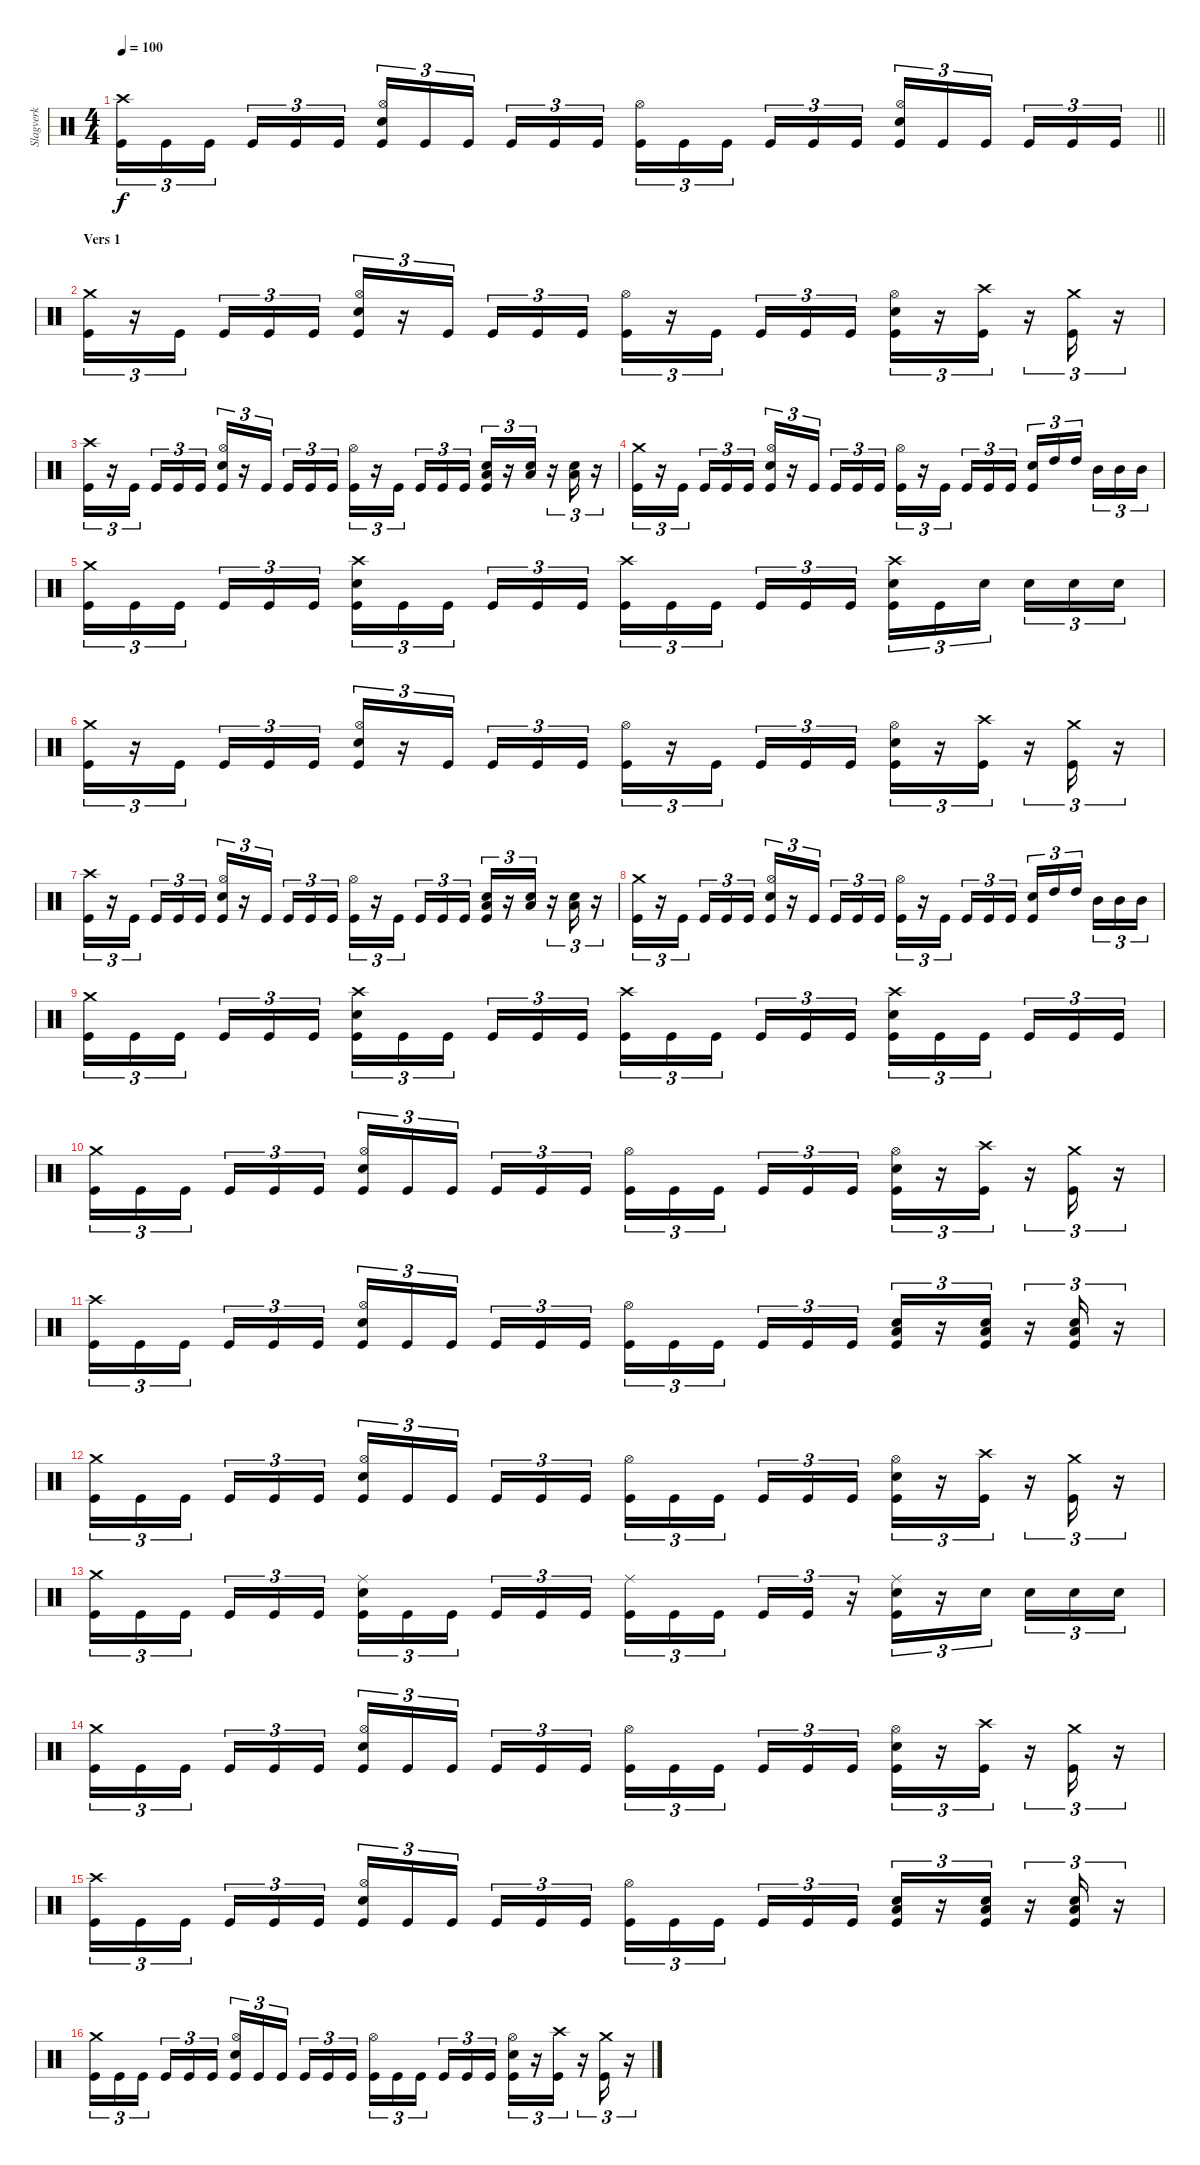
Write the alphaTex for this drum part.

\track ("Slagverk" "Slagverk") {solo instrument percussion}
\staff {score}
\articulation defaults
\ts (4 4)
\tempo 100
\clef neutral
\barLineRight lightlight
\ks c
("Crash high (hit)" "Kick (hit)").16{tu (3 2) dy f} "Kick (hit)".16{tu (3 2)} "Kick (hit)".16{tu (3 2) beam splitsecondary} "Kick (hit)".16{tu (3 2)} "Kick (hit)".16{tu (3 2)} "Kick (hit)".16{tu (3 2)} ("Hi-Hat (open)" "Electric Snare (hit)" "Kick (hit)").16{tu (3 2)} "Kick (hit)".16{tu (3 2)} "Kick (hit)".16{tu (3 2) beam splitsecondary} "Kick (hit)".16{tu (3 2)} "Kick (hit)".16{tu (3 2)} "Kick (hit)".16{tu (3 2)} ("Hi-Hat (open)" "Kick (hit)").16{tu (3 2)} "Kick (hit)".16{tu (3 2)} "Kick (hit)".16{tu (3 2) beam splitsecondary} "Kick (hit)".16{tu (3 2)} "Kick (hit)".16{tu (3 2)} "Kick (hit)".16{tu (3 2)} ("Hi-Hat (open)" "Electric Snare (hit)" "Kick (hit)").16{tu (3 2)} "Kick (hit)".16{tu (3 2)} "Kick (hit)".16{tu (3 2) beam splitsecondary} "Kick (hit)".16{tu (3 2)} "Kick (hit)".16{tu (3 2)} "Kick (hit)".16{tu (3 2)} |
\section ("" "Vers 1")
("Crash medium (hit)" "Kick (hit)").16{tu (3 2)} r.16{tu (3 2)} "Kick (hit)".16{tu (3 2) beam splitsecondary} "Kick (hit)".16{tu (3 2)} "Kick (hit)".16{tu (3 2)} "Kick (hit)".16{tu (3 2)} ("Hi-Hat (open)" "Electric Snare (hit)" "Kick (hit)").16{tu (3 2)} r.16{tu (3 2)} "Kick (hit)".16{tu (3 2) beam splitsecondary} "Kick (hit)".16{tu (3 2)} "Kick (hit)".16{tu (3 2)} "Kick (hit)".16{tu (3 2)} ("Hi-Hat (open)" "Kick (hit)").16{tu (3 2)} r.16{tu (3 2)} "Kick (hit)".16{tu (3 2) beam splitsecondary} "Kick (hit)".16{tu (3 2)} "Kick (hit)".16{tu (3 2)} "Kick (hit)".16{tu (3 2)} ("Hi-Hat (open)" "Electric Snare (hit)" "Kick (hit)").16{tu (3 2)} r.16{tu (3 2)} ("Crash high (hit)" "Kick (hit)").16{tu (3 2)} r.16{tu (3 2)} ("Crash medium (hit)" "Kick (hit)").16{tu (3 2)} r.16{tu (3 2)} |
("Crash high (hit)" "Kick (hit)").16{tu (3 2)} r.16{tu (3 2)} "Kick (hit)".16{tu (3 2) beam splitsecondary} "Kick (hit)".16{tu (3 2)} "Kick (hit)".16{tu (3 2)} "Kick (hit)".16{tu (3 2)} ("Hi-Hat (open)" "Electric Snare (hit)" "Kick (hit)").16{tu (3 2)} r.16{tu (3 2)} "Kick (hit)".16{tu (3 2) beam splitsecondary} "Kick (hit)".16{tu (3 2)} "Kick (hit)".16{tu (3 2)} "Kick (hit)".16{tu (3 2)} ("Hi-Hat (open)" "Kick (hit)").16{tu (3 2)} r.16{tu (3 2)} "Kick (hit)".16{tu (3 2) beam splitsecondary} "Kick (hit)".16{tu (3 2)} "Kick (hit)".16{tu (3 2)} "Kick (hit)".16{tu (3 2)} ("Low Floor Tom (hit)" "Electric Snare (hit)" "Kick (hit)").16{tu (3 2)} r.16{tu (3 2)} ("Low Floor Tom (hit)" "Electric Snare (hit)").16{tu (3 2)} r.16{tu (3 2)} ("Low Floor Tom (hit)" "Electric Snare (hit)").16{tu (3 2)} r.16{tu (3 2)} |
("Crash medium (hit)" "Kick (hit)").16{tu (3 2)} r.16{tu (3 2)} "Kick (hit)".16{tu (3 2) beam splitsecondary} "Kick (hit)".16{tu (3 2)} "Kick (hit)".16{tu (3 2)} "Kick (hit)".16{tu (3 2)} ("Hi-Hat (open)" "Electric Snare (hit)" "Kick (hit)").16{tu (3 2)} r.16{tu (3 2)} "Kick (hit)".16{tu (3 2) beam splitsecondary} "Kick (hit)".16{tu (3 2)} "Kick (hit)".16{tu (3 2)} "Kick (hit)".16{tu (3 2)} ("Hi-Hat (open)" "Kick (hit)").16{tu (3 2)} r.16{tu (3 2)} "Kick (hit)".16{tu (3 2) beam splitsecondary} "Kick (hit)".16{tu (3 2)} "Kick (hit)".16{tu (3 2)} "Kick (hit)".16{tu (3 2)} ("Electric Snare (hit)" "Kick (hit)").16{tu (3 2)} "High Tom (hit)".16{tu (3 2)} "High Tom (hit)".16{tu (3 2) beam splitsecondary} "Mid Tom (hit)".16{tu (3 2)} "Mid Tom (hit)".16{tu (3 2)} "Mid Tom (hit)".16{tu (3 2)} |
("Crash medium (hit)" "Kick (hit)").16{tu (3 2)} "Kick (hit)".16{tu (3 2)} "Kick (hit)".16{tu (3 2) beam splitsecondary} "Kick (hit)".16{tu (3 2)} "Kick (hit)".16{tu (3 2)} "Kick (hit)".16{tu (3 2)} ("Crash high (hit)" "Electric Snare (hit)" "Kick (hit)").16{tu (3 2)} "Kick (hit)".16{tu (3 2)} "Kick (hit)".16{tu (3 2) beam splitsecondary} "Kick (hit)".16{tu (3 2)} "Kick (hit)".16{tu (3 2)} "Kick (hit)".16{tu (3 2)} ("Crash high (hit)" "Kick (hit)").16{tu (3 2)} "Kick (hit)".16{tu (3 2)} "Kick (hit)".16{tu (3 2) beam splitsecondary} "Kick (hit)".16{tu (3 2)} "Kick (hit)".16{tu (3 2)} "Kick (hit)".16{tu (3 2)} ("Crash high (hit)" "Electric Snare (hit)" "Kick (hit)").16{tu (3 2)} "Kick (hit)".16{tu (3 2)} "Snare (hit) 2".16{tu (3 2) beam splitsecondary} "Snare (hit) 2".16{tu (3 2)} "Snare (hit) 2".16{tu (3 2)} "Snare (hit) 2".16{tu (3 2)} |
("Crash medium (hit)" "Kick (hit)").16{tu (3 2)} r.16{tu (3 2)} "Kick (hit)".16{tu (3 2) beam splitsecondary} "Kick (hit)".16{tu (3 2)} "Kick (hit)".16{tu (3 2)} "Kick (hit)".16{tu (3 2)} ("Hi-Hat (open)" "Electric Snare (hit)" "Kick (hit)").16{tu (3 2)} r.16{tu (3 2)} "Kick (hit)".16{tu (3 2) beam splitsecondary} "Kick (hit)".16{tu (3 2)} "Kick (hit)".16{tu (3 2)} "Kick (hit)".16{tu (3 2)} ("Hi-Hat (open)" "Kick (hit)").16{tu (3 2)} r.16{tu (3 2)} "Kick (hit)".16{tu (3 2) beam splitsecondary} "Kick (hit)".16{tu (3 2)} "Kick (hit)".16{tu (3 2)} "Kick (hit)".16{tu (3 2)} ("Hi-Hat (open)" "Electric Snare (hit)" "Kick (hit)").16{tu (3 2)} r.16{tu (3 2)} ("Crash high (hit)" "Kick (hit)").16{tu (3 2)} r.16{tu (3 2)} ("Crash medium (hit)" "Kick (hit)").16{tu (3 2)} r.16{tu (3 2)} |
("Crash high (hit)" "Kick (hit)").16{tu (3 2)} r.16{tu (3 2)} "Kick (hit)".16{tu (3 2) beam splitsecondary} "Kick (hit)".16{tu (3 2)} "Kick (hit)".16{tu (3 2)} "Kick (hit)".16{tu (3 2)} ("Hi-Hat (open)" "Electric Snare (hit)" "Kick (hit)").16{tu (3 2)} r.16{tu (3 2)} "Kick (hit)".16{tu (3 2) beam splitsecondary} "Kick (hit)".16{tu (3 2)} "Kick (hit)".16{tu (3 2)} "Kick (hit)".16{tu (3 2)} ("Hi-Hat (open)" "Kick (hit)").16{tu (3 2)} r.16{tu (3 2)} "Kick (hit)".16{tu (3 2) beam splitsecondary} "Kick (hit)".16{tu (3 2)} "Kick (hit)".16{tu (3 2)} "Kick (hit)".16{tu (3 2)} ("Low Floor Tom (hit)" "Electric Snare (hit)" "Kick (hit)").16{tu (3 2)} r.16{tu (3 2)} ("Low Floor Tom (hit)" "Electric Snare (hit)").16{tu (3 2)} r.16{tu (3 2)} ("Low Floor Tom (hit)" "Electric Snare (hit)").16{tu (3 2)} r.16{tu (3 2)} |
("Crash medium (hit)" "Kick (hit)").16{tu (3 2)} r.16{tu (3 2)} "Kick (hit)".16{tu (3 2) beam splitsecondary} "Kick (hit)".16{tu (3 2)} "Kick (hit)".16{tu (3 2)} "Kick (hit)".16{tu (3 2)} ("Hi-Hat (open)" "Electric Snare (hit)" "Kick (hit)").16{tu (3 2)} r.16{tu (3 2)} "Kick (hit)".16{tu (3 2) beam splitsecondary} "Kick (hit)".16{tu (3 2)} "Kick (hit)".16{tu (3 2)} "Kick (hit)".16{tu (3 2)} ("Hi-Hat (open)" "Kick (hit)").16{tu (3 2)} r.16{tu (3 2)} "Kick (hit)".16{tu (3 2) beam splitsecondary} "Kick (hit)".16{tu (3 2)} "Kick (hit)".16{tu (3 2)} "Kick (hit)".16{tu (3 2)} ("Electric Snare (hit)" "Kick (hit)").16{tu (3 2)} "High Tom (hit)".16{tu (3 2)} "High Tom (hit)".16{tu (3 2) beam splitsecondary} "Mid Tom (hit)".16{tu (3 2)} "Mid Tom (hit)".16{tu (3 2)} "Mid Tom (hit)".16{tu (3 2)} |
("Crash medium (hit)" "Kick (hit)").16{tu (3 2)} "Kick (hit)".16{tu (3 2)} "Kick (hit)".16{tu (3 2) beam splitsecondary} "Kick (hit)".16{tu (3 2)} "Kick (hit)".16{tu (3 2)} "Kick (hit)".16{tu (3 2)} ("Crash high (hit)" "Electric Snare (hit)" "Kick (hit)").16{tu (3 2)} "Kick (hit)".16{tu (3 2)} "Kick (hit)".16{tu (3 2) beam splitsecondary} "Kick (hit)".16{tu (3 2)} "Kick (hit)".16{tu (3 2)} "Kick (hit)".16{tu (3 2)} ("Crash high (hit)" "Kick (hit)").16{tu (3 2)} "Kick (hit)".16{tu (3 2)} "Kick (hit)".16{tu (3 2) beam splitsecondary} "Kick (hit)".16{tu (3 2)} "Kick (hit)".16{tu (3 2)} "Kick (hit)".16{tu (3 2)} ("Crash high (hit)" "Electric Snare (hit)" "Kick (hit)").16{tu (3 2)} "Kick (hit)".16{tu (3 2)} "Kick (hit)".16{tu (3 2) beam splitsecondary} "Kick (hit)".16{tu (3 2)} "Kick (hit)".16{tu (3 2)} "Kick (hit)".16{tu (3 2)} |
("Crash medium (hit)" "Kick (hit)").16{tu (3 2)} "Kick (hit)".16{tu (3 2)} "Kick (hit)".16{tu (3 2) beam splitsecondary} "Kick (hit)".16{tu (3 2)} "Kick (hit)".16{tu (3 2)} "Kick (hit)".16{tu (3 2)} ("Hi-Hat (open)" "Electric Snare (hit)" "Kick (hit)").16{tu (3 2)} "Kick (hit)".16{tu (3 2)} "Kick (hit)".16{tu (3 2) beam splitsecondary} "Kick (hit)".16{tu (3 2)} "Kick (hit)".16{tu (3 2)} "Kick (hit)".16{tu (3 2)} ("Hi-Hat (open)" "Kick (hit)").16{tu (3 2)} "Kick (hit)".16{tu (3 2)} "Kick (hit)".16{tu (3 2) beam splitsecondary} "Kick (hit)".16{tu (3 2)} "Kick (hit)".16{tu (3 2)} "Kick (hit)".16{tu (3 2)} ("Hi-Hat (open)" "Electric Snare (hit)" "Kick (hit)").16{tu (3 2)} r.16{tu (3 2)} ("Crash high (hit)" "Kick (hit)").16{tu (3 2)} r.16{tu (3 2)} ("Crash medium (hit)" "Kick (hit)").16{tu (3 2)} r.16{tu (3 2)} |
("Crash high (hit)" "Kick (hit)").16{tu (3 2)} "Kick (hit)".16{tu (3 2)} "Kick (hit)".16{tu (3 2) beam splitsecondary} "Kick (hit)".16{tu (3 2)} "Kick (hit)".16{tu (3 2)} "Kick (hit)".16{tu (3 2)} ("Hi-Hat (open)" "Electric Snare (hit)" "Kick (hit)").16{tu (3 2)} "Kick (hit)".16{tu (3 2)} "Kick (hit)".16{tu (3 2) beam splitsecondary} "Kick (hit)".16{tu (3 2)} "Kick (hit)".16{tu (3 2)} "Kick (hit)".16{tu (3 2)} ("Hi-Hat (open)" "Kick (hit)").16{tu (3 2)} "Kick (hit)".16{tu (3 2)} "Kick (hit)".16{tu (3 2) beam splitsecondary} "Kick (hit)".16{tu (3 2)} "Kick (hit)".16{tu (3 2)} "Kick (hit)".16{tu (3 2)} ("Low Floor Tom (hit)" "Electric Snare (hit)" "Kick (hit)").16{tu (3 2)} r.16{tu (3 2)} ("Low Floor Tom (hit)" "Electric Snare (hit)" "Kick (hit)").16{tu (3 2)} r.16{tu (3 2)} ("Low Floor Tom (hit)" "Electric Snare (hit)" "Kick (hit)").16{tu (3 2)} r.16{tu (3 2)} |
("Crash medium (hit)" "Kick (hit)").16{tu (3 2)} "Kick (hit)".16{tu (3 2)} "Kick (hit)".16{tu (3 2) beam splitsecondary} "Kick (hit)".16{tu (3 2)} "Kick (hit)".16{tu (3 2)} "Kick (hit)".16{tu (3 2)} ("Hi-Hat (open)" "Electric Snare (hit)" "Kick (hit)").16{tu (3 2)} "Kick (hit)".16{tu (3 2)} "Kick (hit)".16{tu (3 2) beam splitsecondary} "Kick (hit)".16{tu (3 2)} "Kick (hit)".16{tu (3 2)} "Kick (hit)".16{tu (3 2)} ("Hi-Hat (open)" "Kick (hit)").16{tu (3 2)} "Kick (hit)".16{tu (3 2)} "Kick (hit)".16{tu (3 2) beam splitsecondary} "Kick (hit)".16{tu (3 2)} "Kick (hit)".16{tu (3 2)} "Kick (hit)".16{tu (3 2)} ("Hi-Hat (open)" "Electric Snare (hit)" "Kick (hit)").16{tu (3 2)} r.16{tu (3 2)} ("Crash high (hit)" "Kick (hit)").16{tu (3 2)} r.16{tu (3 2)} ("Crash medium (hit)" "Kick (hit)").16{tu (3 2)} r.16{tu (3 2)} |
("Crash medium (hit)" "Kick (hit)").16{tu (3 2)} "Kick (hit)".16{tu (3 2)} "Kick (hit)".16{tu (3 2) beam splitsecondary} "Kick (hit)".16{tu (3 2)} "Kick (hit)".16{tu (3 2)} "Kick (hit)".16{tu (3 2)} ("Ride (middle)" "Electric Snare (hit)" "Kick (hit)").16{tu (3 2)} "Kick (hit)".16{tu (3 2)} "Kick (hit)".16{tu (3 2) beam splitsecondary} "Kick (hit)".16{tu (3 2)} "Kick (hit)".16{tu (3 2)} "Kick (hit)".16{tu (3 2)} ("Ride (middle)" "Kick (hit)").16{tu (3 2)} "Kick (hit)".16{tu (3 2)} "Kick (hit)".16{tu (3 2) beam splitsecondary} "Kick (hit)".16{tu (3 2)} "Kick (hit)".16{tu (3 2)} r.16{tu (3 2)} ("Ride (middle)" "Electric Snare (hit)" "Kick (hit)").16{tu (3 2)} r.16{tu (3 2)} "Electric Snare (hit)".16{tu (3 2) beam splitsecondary} "Electric Snare (hit)".16{tu (3 2)} "Electric Snare (hit)".16{tu (3 2)} "Electric Snare (hit)".16{tu (3 2)} |
("Crash medium (hit)" "Kick (hit)").16{tu (3 2)} "Kick (hit)".16{tu (3 2)} "Kick (hit)".16{tu (3 2) beam splitsecondary} "Kick (hit)".16{tu (3 2)} "Kick (hit)".16{tu (3 2)} "Kick (hit)".16{tu (3 2)} ("Hi-Hat (open)" "Electric Snare (hit)" "Kick (hit)").16{tu (3 2)} "Kick (hit)".16{tu (3 2)} "Kick (hit)".16{tu (3 2) beam splitsecondary} "Kick (hit)".16{tu (3 2)} "Kick (hit)".16{tu (3 2)} "Kick (hit)".16{tu (3 2)} ("Hi-Hat (open)" "Kick (hit)").16{tu (3 2)} "Kick (hit)".16{tu (3 2)} "Kick (hit)".16{tu (3 2) beam splitsecondary} "Kick (hit)".16{tu (3 2)} "Kick (hit)".16{tu (3 2)} "Kick (hit)".16{tu (3 2)} ("Hi-Hat (open)" "Electric Snare (hit)" "Kick (hit)").16{tu (3 2)} r.16{tu (3 2)} ("Crash high (hit)" "Kick (hit)").16{tu (3 2)} r.16{tu (3 2)} ("Crash medium (hit)" "Kick (hit)").16{tu (3 2)} r.16{tu (3 2)} |
("Crash high (hit)" "Kick (hit)").16{tu (3 2)} "Kick (hit)".16{tu (3 2)} "Kick (hit)".16{tu (3 2) beam splitsecondary} "Kick (hit)".16{tu (3 2)} "Kick (hit)".16{tu (3 2)} "Kick (hit)".16{tu (3 2)} ("Hi-Hat (open)" "Electric Snare (hit)" "Kick (hit)").16{tu (3 2)} "Kick (hit)".16{tu (3 2)} "Kick (hit)".16{tu (3 2) beam splitsecondary} "Kick (hit)".16{tu (3 2)} "Kick (hit)".16{tu (3 2)} "Kick (hit)".16{tu (3 2)} ("Hi-Hat (open)" "Kick (hit)").16{tu (3 2)} "Kick (hit)".16{tu (3 2)} "Kick (hit)".16{tu (3 2) beam splitsecondary} "Kick (hit)".16{tu (3 2)} "Kick (hit)".16{tu (3 2)} "Kick (hit)".16{tu (3 2)} ("Low Floor Tom (hit)" "Electric Snare (hit)" "Kick (hit)").16{tu (3 2)} r.16{tu (3 2)} ("Low Floor Tom (hit)" "Electric Snare (hit)" "Kick (hit)").16{tu (3 2)} r.16{tu (3 2)} ("Low Floor Tom (hit)" "Electric Snare (hit)" "Kick (hit)").16{tu (3 2)} r.16{tu (3 2)} |
("Crash medium (hit)" "Kick (hit)").16{tu (3 2)} "Kick (hit)".16{tu (3 2)} "Kick (hit)".16{tu (3 2) beam splitsecondary} "Kick (hit)".16{tu (3 2)} "Kick (hit)".16{tu (3 2)} "Kick (hit)".16{tu (3 2)} ("Hi-Hat (open)" "Electric Snare (hit)" "Kick (hit)").16{tu (3 2)} "Kick (hit)".16{tu (3 2)} "Kick (hit)".16{tu (3 2) beam splitsecondary} "Kick (hit)".16{tu (3 2)} "Kick (hit)".16{tu (3 2)} "Kick (hit)".16{tu (3 2)} ("Hi-Hat (open)" "Kick (hit)").16{tu (3 2)} "Kick (hit)".16{tu (3 2)} "Kick (hit)".16{tu (3 2) beam splitsecondary} "Kick (hit)".16{tu (3 2)} "Kick (hit)".16{tu (3 2)} "Kick (hit)".16{tu (3 2)} ("Hi-Hat (open)" "Electric Snare (hit)" "Kick (hit)").16{tu (3 2)} r.16{tu (3 2)} ("Crash high (hit)" "Kick (hit)").16{tu (3 2)} r.16{tu (3 2)} ("Crash medium (hit)" "Kick (hit)").16{tu (3 2)} r.16{tu (3 2)}
